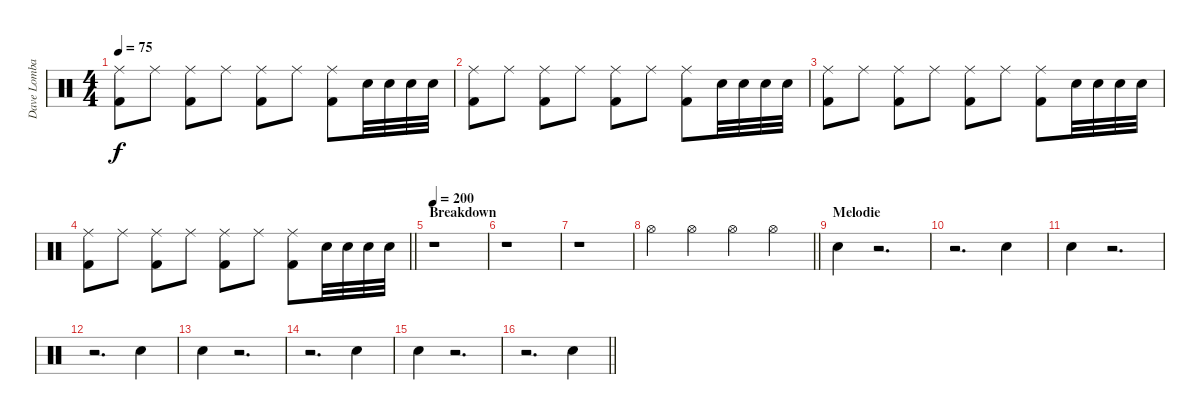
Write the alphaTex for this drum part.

\track ("Dave Lombardo (Drums)" "Dave Lomba") {instrument percussion}
\staff {score}
\articulation defaults
\ts (4 4)
\tempo 75
\clef neutral
\ks c
("Ride (middle)" "Kick (hit) 2").8{dy f} "Ride (middle)".8 ("Ride (middle)" "Kick (hit) 2").8 "Ride (middle)".8 ("Ride (middle)" "Kick (hit) 2").8 "Ride (middle)".8 ("Ride (middle)" "Kick (hit) 2").8 "Snare (hit) 2".32 "Snare (hit) 2".32 "Snare (hit) 2".32 "Snare (hit) 2".32 |
("Ride (middle)" "Kick (hit) 2").8 "Ride (middle)".8 ("Ride (middle)" "Kick (hit) 2").8 "Ride (middle)".8 ("Ride (middle)" "Kick (hit) 2").8 "Ride (middle)".8 ("Ride (middle)" "Kick (hit) 2").8 "Snare (hit) 2".32 "Snare (hit) 2".32 "Snare (hit) 2".32 "Snare (hit) 2".32 |
("Ride (middle)" "Kick (hit) 2").8 "Ride (middle)".8 ("Ride (middle)" "Kick (hit) 2").8 "Ride (middle)".8 ("Ride (middle)" "Kick (hit) 2").8 "Ride (middle)".8 ("Ride (middle)" "Kick (hit) 2").8 "Snare (hit) 2".32 "Snare (hit) 2".32 "Snare (hit) 2".32 "Snare (hit) 2".32 |
\barLineRight lightlight
("Ride (middle)" "Kick (hit) 2").8 "Ride (middle)".8 ("Ride (middle)" "Kick (hit) 2").8 "Ride (middle)".8 ("Ride (middle)" "Kick (hit) 2").8 "Ride (middle)".8 ("Ride (middle)" "Kick (hit) 2").8 "Snare (hit) 2".32 "Snare (hit) 2".32 "Snare (hit) 2".32 "Snare (hit) 2".32 |
\section ("" "Breakdown")
\tempo 200
r.1 |
r.1 |
r.1 |
\barLineRight lightlight "Hi-Hat (open)".4 "Hi-Hat (open)".4 "Hi-Hat (open)".4 "Hi-Hat (open)".4
|
\section ("" "Melodie")
"Snare (hit) 2".4 r.2{d} |
r.2{d} "Snare (hit) 2".4 |
"Snare (hit) 2".4 r.2{d} |
r.2{d} "Snare (hit) 2".4 |
"Snare (hit) 2".4 r.2{d} |
r.2{d} "Snare (hit) 2".4 |
"Snare (hit) 2".4 r.2{d} |
\barLineRight lightlight
r.2{d} "Snare (hit) 2".4
